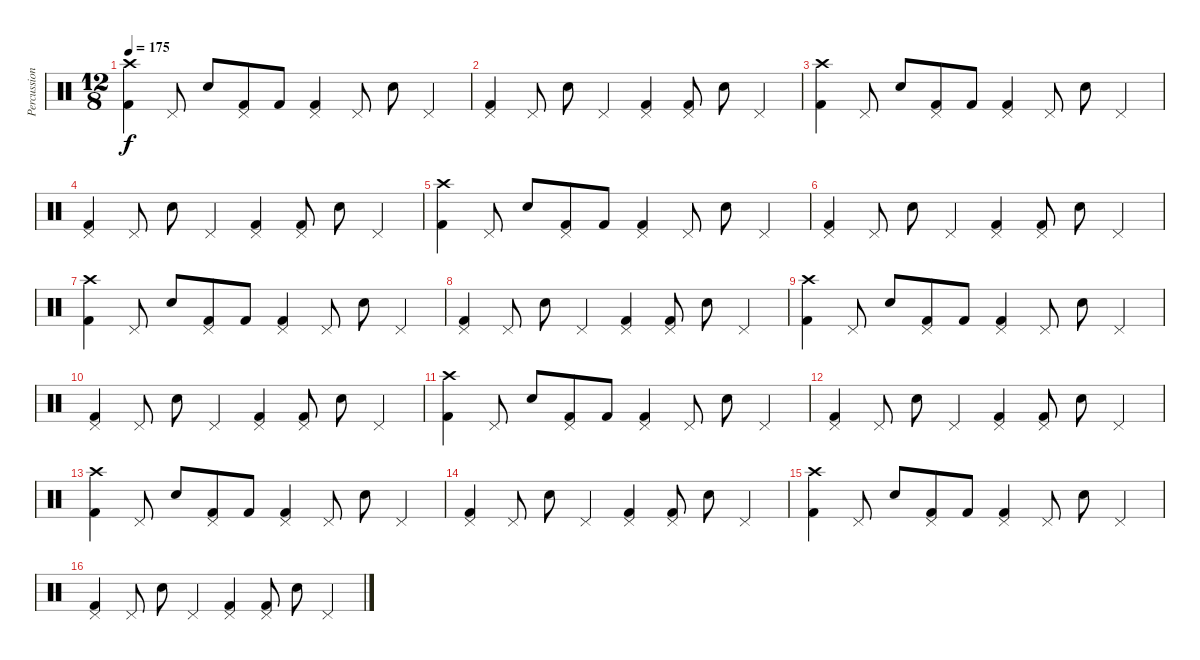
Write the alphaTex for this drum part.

\track ("Percussion" "Percussion") {instrument percussion}
\staff {score}
\articulation defaults
\ts (12 8)
\tempo 175
\clef neutral
\ks c
("Kick (hit) 2" "Crash high (hit)").4{dy f} "Pedal Hi-Hat (hit)".8 "Snare (hit) 2".8 ("Kick (hit) 2" "Pedal Hi-Hat (hit)").8 "Kick (hit) 2".8 ("Kick (hit) 2" "Pedal Hi-Hat (hit)").4 "Pedal Hi-Hat (hit)".8 "Snare (hit) 2".8 "Pedal Hi-Hat (hit)".4 |
("Kick (hit) 2" "Pedal Hi-Hat (hit)").4 "Pedal Hi-Hat (hit)".8 "Snare (hit) 2".8 "Pedal Hi-Hat (hit)".4 ("Kick (hit) 2" "Pedal Hi-Hat (hit)").4 ("Kick (hit) 2" "Pedal Hi-Hat (hit)").8 "Snare (hit) 2".8 "Pedal Hi-Hat (hit)".4 |
("Kick (hit) 2" "Crash high (hit)").4 "Pedal Hi-Hat (hit)".8 "Snare (hit) 2".8 ("Kick (hit) 2" "Pedal Hi-Hat (hit)").8 "Kick (hit) 2".8 ("Kick (hit) 2" "Pedal Hi-Hat (hit)").4 "Pedal Hi-Hat (hit)".8 "Snare (hit) 2".8 "Pedal Hi-Hat (hit)".4 |
("Kick (hit) 2" "Pedal Hi-Hat (hit)").4 "Pedal Hi-Hat (hit)".8 "Snare (hit) 2".8 "Pedal Hi-Hat (hit)".4 ("Kick (hit) 2" "Pedal Hi-Hat (hit)").4 ("Kick (hit) 2" "Pedal Hi-Hat (hit)").8 "Snare (hit) 2".8 "Pedal Hi-Hat (hit)".4 |
("Kick (hit) 2" "Crash high (hit)").4 "Pedal Hi-Hat (hit)".8 "Snare (hit) 2".8 ("Kick (hit) 2" "Pedal Hi-Hat (hit)").8 "Kick (hit) 2".8 ("Kick (hit) 2" "Pedal Hi-Hat (hit)").4 "Pedal Hi-Hat (hit)".8 "Snare (hit) 2".8 "Pedal Hi-Hat (hit)".4 |
("Kick (hit) 2" "Pedal Hi-Hat (hit)").4 "Pedal Hi-Hat (hit)".8 "Snare (hit) 2".8 "Pedal Hi-Hat (hit)".4 ("Kick (hit) 2" "Pedal Hi-Hat (hit)").4 ("Kick (hit) 2" "Pedal Hi-Hat (hit)").8 "Snare (hit) 2".8 "Pedal Hi-Hat (hit)".4 |
("Kick (hit) 2" "Crash high (hit)").4 "Pedal Hi-Hat (hit)".8 "Snare (hit) 2".8 ("Kick (hit) 2" "Pedal Hi-Hat (hit)").8 "Kick (hit) 2".8 ("Kick (hit) 2" "Pedal Hi-Hat (hit)").4 "Pedal Hi-Hat (hit)".8 "Snare (hit) 2".8 "Pedal Hi-Hat (hit)".4 |
("Kick (hit) 2" "Pedal Hi-Hat (hit)").4 "Pedal Hi-Hat (hit)".8 "Snare (hit) 2".8 "Pedal Hi-Hat (hit)".4 ("Kick (hit) 2" "Pedal Hi-Hat (hit)").4 ("Kick (hit) 2" "Pedal Hi-Hat (hit)").8 "Snare (hit) 2".8 "Pedal Hi-Hat (hit)".4 |
("Kick (hit) 2" "Crash high (hit)").4 "Pedal Hi-Hat (hit)".8 "Snare (hit) 2".8 ("Kick (hit) 2" "Pedal Hi-Hat (hit)").8 "Kick (hit) 2".8 ("Kick (hit) 2" "Pedal Hi-Hat (hit)").4 "Pedal Hi-Hat (hit)".8 "Snare (hit) 2".8 "Pedal Hi-Hat (hit)".4 |
("Kick (hit) 2" "Pedal Hi-Hat (hit)").4 "Pedal Hi-Hat (hit)".8 "Snare (hit) 2".8 "Pedal Hi-Hat (hit)".4 ("Kick (hit) 2" "Pedal Hi-Hat (hit)").4 ("Kick (hit) 2" "Pedal Hi-Hat (hit)").8 "Snare (hit) 2".8 "Pedal Hi-Hat (hit)".4 |
("Kick (hit) 2" "Crash high (hit)").4 "Pedal Hi-Hat (hit)".8 "Snare (hit) 2".8 ("Kick (hit) 2" "Pedal Hi-Hat (hit)").8 "Kick (hit) 2".8 ("Kick (hit) 2" "Pedal Hi-Hat (hit)").4 "Pedal Hi-Hat (hit)".8 "Snare (hit) 2".8 "Pedal Hi-Hat (hit)".4 |
("Kick (hit) 2" "Pedal Hi-Hat (hit)").4 "Pedal Hi-Hat (hit)".8 "Snare (hit) 2".8 "Pedal Hi-Hat (hit)".4 ("Kick (hit) 2" "Pedal Hi-Hat (hit)").4 ("Kick (hit) 2" "Pedal Hi-Hat (hit)").8 "Snare (hit) 2".8 "Pedal Hi-Hat (hit)".4 |
("Kick (hit) 2" "Crash high (hit)").4 "Pedal Hi-Hat (hit)".8 "Snare (hit) 2".8 ("Kick (hit) 2" "Pedal Hi-Hat (hit)").8 "Kick (hit) 2".8 ("Kick (hit) 2" "Pedal Hi-Hat (hit)").4 "Pedal Hi-Hat (hit)".8 "Snare (hit) 2".8 "Pedal Hi-Hat (hit)".4 |
("Kick (hit) 2" "Pedal Hi-Hat (hit)").4 "Pedal Hi-Hat (hit)".8 "Snare (hit) 2".8 "Pedal Hi-Hat (hit)".4 ("Kick (hit) 2" "Pedal Hi-Hat (hit)").4 ("Kick (hit) 2" "Pedal Hi-Hat (hit)").8 "Snare (hit) 2".8 "Pedal Hi-Hat (hit)".4 |
("Kick (hit) 2" "Crash high (hit)").4 "Pedal Hi-Hat (hit)".8 "Snare (hit) 2".8 ("Kick (hit) 2" "Pedal Hi-Hat (hit)").8 "Kick (hit) 2".8 ("Kick (hit) 2" "Pedal Hi-Hat (hit)").4 "Pedal Hi-Hat (hit)".8 "Snare (hit) 2".8 "Pedal Hi-Hat (hit)".4 |
("Kick (hit) 2" "Pedal Hi-Hat (hit)").4 "Pedal Hi-Hat (hit)".8 "Snare (hit) 2".8 "Pedal Hi-Hat (hit)".4 ("Kick (hit) 2" "Pedal Hi-Hat (hit)").4 ("Kick (hit) 2" "Pedal Hi-Hat (hit)").8 "Snare (hit) 2".8 "Pedal Hi-Hat (hit)".4
